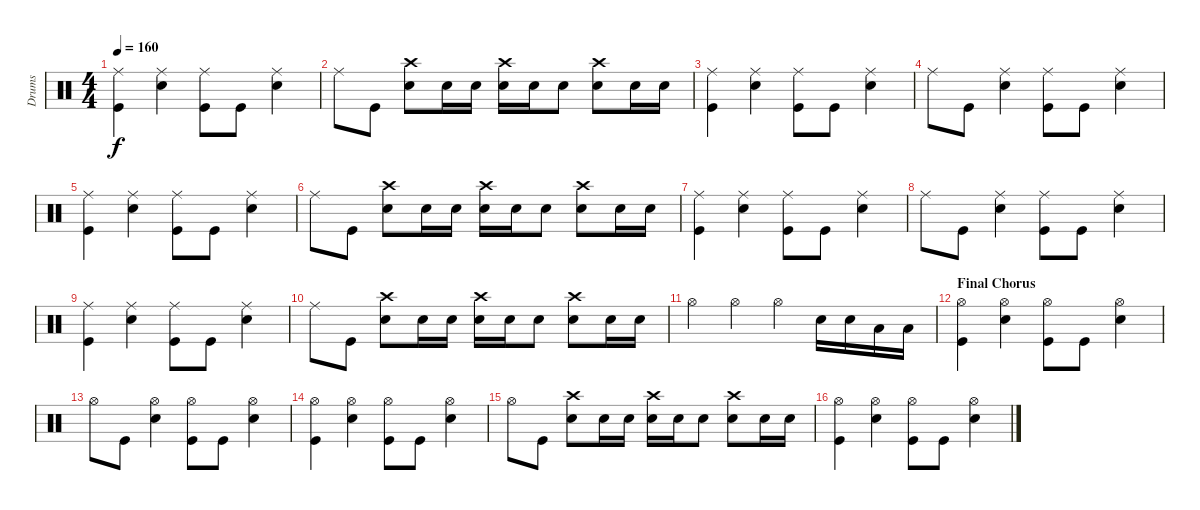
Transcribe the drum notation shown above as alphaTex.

\track ("Drums" "Drums") {instrument percussion}
\staff {score}
\articulation defaults
\ts (4 4)
\tempo 160
\clef neutral
\ks c
("Ride (middle)" "Kick (hit)").4{dy f} ("Ride (middle)" "Electric Snare (hit)").4 ("Ride (middle)" "Kick (hit)").8 "Kick (hit)".8 ("Ride (middle)" "Electric Snare (hit)").4 |
"Ride (middle)".8 "Kick (hit)".8 ("Electric Snare (hit)" "Crash high (hit)").8 "Electric Snare (hit)".16 "Electric Snare (hit)".16 ("Electric Snare (hit)" "Crash high (hit)").16 "Electric Snare (hit)".16 "Electric Snare (hit)".8 ("Electric Snare (hit)" "Crash high (hit)").8 "Electric Snare (hit)".16 "Electric Snare (hit)".16 |
("Ride (middle)" "Kick (hit)").4 ("Ride (middle)" "Electric Snare (hit)").4 ("Ride (middle)" "Kick (hit)").8 "Kick (hit)".8 ("Ride (middle)" "Electric Snare (hit)").4 |
"Ride (middle)".8 "Kick (hit)".8 ("Ride (middle)" "Electric Snare (hit)").4 ("Ride (middle)" "Kick (hit)").8 "Kick (hit)".8 ("Ride (middle)" "Electric Snare (hit)").4 |
("Ride (middle)" "Kick (hit)").4 ("Ride (middle)" "Electric Snare (hit)").4 ("Ride (middle)" "Kick (hit)").8 "Kick (hit)".8 ("Ride (middle)" "Electric Snare (hit)").4 |
"Ride (middle)".8 "Kick (hit)".8 ("Electric Snare (hit)" "Crash high (hit)").8 "Electric Snare (hit)".16 "Electric Snare (hit)".16 ("Electric Snare (hit)" "Crash high (hit)").16 "Electric Snare (hit)".16 "Electric Snare (hit)".8 ("Electric Snare (hit)" "Crash high (hit)").8 "Electric Snare (hit)".16 "Electric Snare (hit)".16 |
("Ride (middle)" "Kick (hit)").4 ("Ride (middle)" "Electric Snare (hit)").4 ("Ride (middle)" "Kick (hit)").8 "Kick (hit)".8 ("Ride (middle)" "Electric Snare (hit)").4 |
"Ride (middle)".8 "Kick (hit)".8 ("Ride (middle)" "Electric Snare (hit)").4 ("Ride (middle)" "Kick (hit)").8 "Kick (hit)".8 ("Ride (middle)" "Electric Snare (hit)").4 |
("Ride (middle)" "Kick (hit)").4 ("Ride (middle)" "Electric Snare (hit)").4 ("Ride (middle)" "Kick (hit)").8 "Kick (hit)".8 ("Ride (middle)" "Electric Snare (hit)").4 |
"Ride (middle)".8 "Kick (hit)".8 ("Electric Snare (hit)" "Crash high (hit)").8 "Electric Snare (hit)".16 "Electric Snare (hit)".16 ("Electric Snare (hit)" "Crash high (hit)").16 "Electric Snare (hit)".16 "Electric Snare (hit)".8 ("Electric Snare (hit)" "Crash high (hit)").8 "Electric Snare (hit)".16 "Electric Snare (hit)".16 |
"Hi-Hat (open)".4 "Hi-Hat (open)".4 "Hi-Hat (open)".4 "Electric Snare (hit)".16 "Electric Snare (hit)".16 "Low Tom (hit)".16 "Low Tom (hit)".16 |
\section ("" "Final Chorus")
("Hi-Hat (open)" "Kick (hit)").4 ("Hi-Hat (open)" "Electric Snare (hit)").4 ("Hi-Hat (open)" "Kick (hit)").8 "Kick (hit)".8 ("Hi-Hat (open)" "Electric Snare (hit)").4 |
"Hi-Hat (open)".8 "Kick (hit)".8 ("Hi-Hat (open)" "Electric Snare (hit)").4 ("Hi-Hat (open)" "Kick (hit)").8 "Kick (hit)".8 ("Hi-Hat (open)" "Electric Snare (hit)").4 |
("Hi-Hat (open)" "Kick (hit)").4 ("Hi-Hat (open)" "Electric Snare (hit)").4 ("Hi-Hat (open)" "Kick (hit)").8 "Kick (hit)".8 ("Hi-Hat (open)" "Electric Snare (hit)").4 |
"Hi-Hat (open)".8 "Kick (hit)".8 ("Electric Snare (hit)" "Crash high (hit)").8 "Electric Snare (hit)".16 "Electric Snare (hit)".16 ("Electric Snare (hit)" "Crash high (hit)").16 "Electric Snare (hit)".16 "Electric Snare (hit)".8 ("Electric Snare (hit)" "Crash high (hit)").8 "Electric Snare (hit)".16 "Electric Snare (hit)".16 |
("Hi-Hat (open)" "Kick (hit)").4 ("Hi-Hat (open)" "Electric Snare (hit)").4 ("Hi-Hat (open)" "Kick (hit)").8 "Kick (hit)".8 ("Hi-Hat (open)" "Electric Snare (hit)").4
